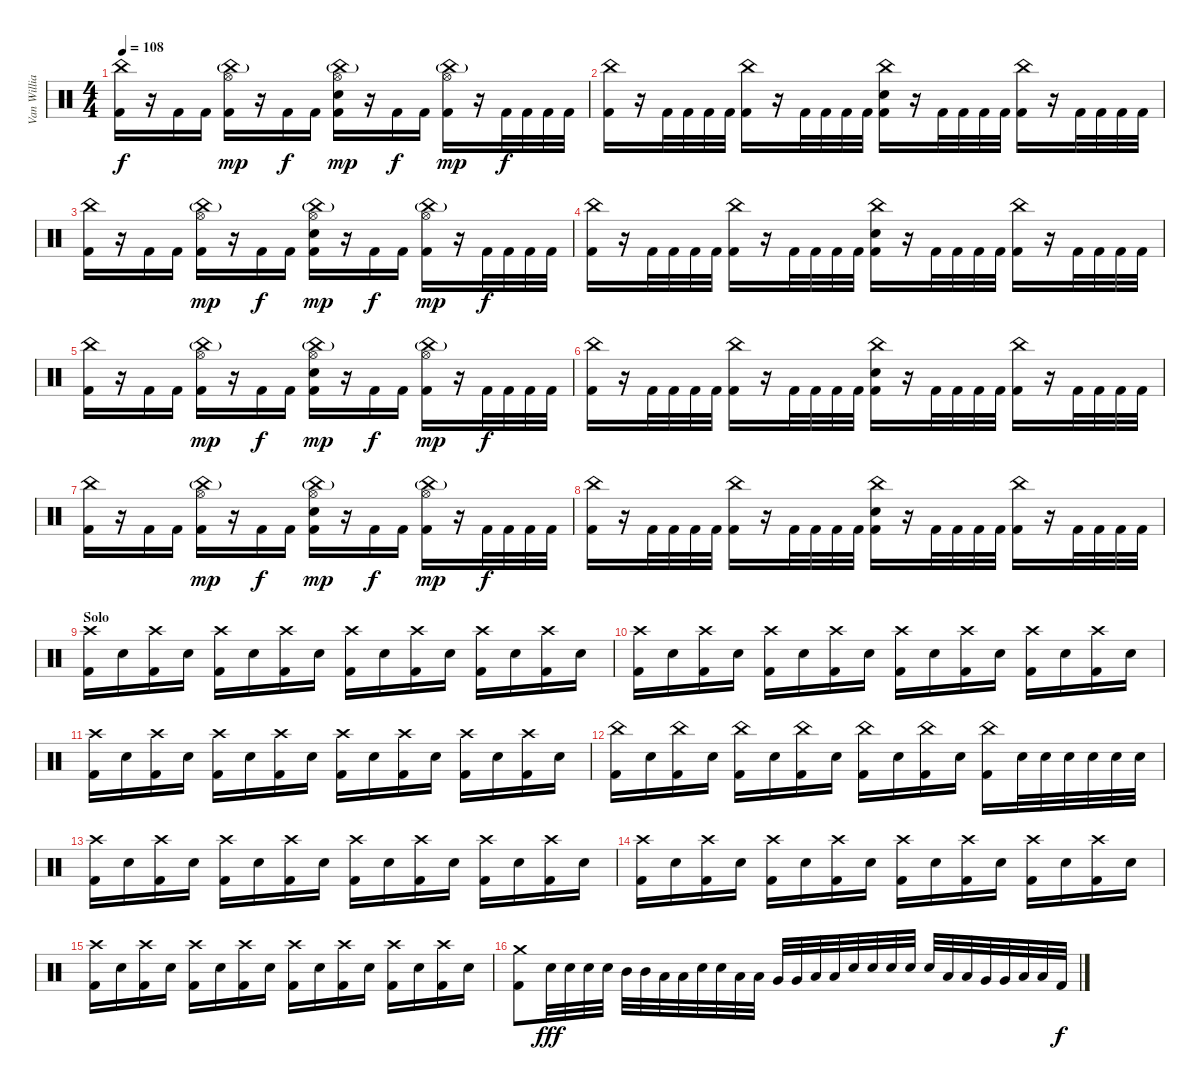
\track ("Van Williams" "Van Willia") {instrument percussion}
\staff {score}
\articulation defaults
\ts (4 4)
\tempo 108
\clef neutral
\ks c
("China (hit)" "Kick (hit) 2").16{dy f} r.16 "Kick (hit) 2".16 "Kick (hit) 2".16 ("China (hit)"{g} "Hi-Hat (open)" "Kick (hit) 2").16{dy mp} r.16 "Kick (hit) 2".16{dy f} "Kick (hit) 2".16 ("China (hit)"{g} "Hi-Hat (open)" "Electric Snare (hit)" "Kick (hit) 2").16{dy mp} r.16 "Kick (hit) 2".16{dy f} "Kick (hit) 2".16 ("China (hit)"{g} "Hi-Hat (open)" "Kick (hit) 2").16{dy mp} r.16 "Kick (hit) 2".32{dy f} "Kick (hit) 2".32 "Kick (hit) 2".32 "Kick (hit) 2".32 |
("China (hit)" "Kick (hit) 2").16 r.16 "Kick (hit) 2".32 "Kick (hit) 2".32 "Kick (hit) 2".32 "Kick (hit) 2".32 ("China (hit)" "Kick (hit) 2").16 r.16 "Kick (hit) 2".32 "Kick (hit) 2".32 "Kick (hit) 2".32 "Kick (hit) 2".32 ("China (hit)" "Electric Snare (hit)" "Kick (hit) 2").16 r.16 "Kick (hit) 2".32 "Kick (hit) 2".32 "Kick (hit) 2".32 "Kick (hit) 2".32 ("China (hit)" "Kick (hit) 2").16 r.16 "Kick (hit) 2".32 "Kick (hit) 2".32 "Kick (hit) 2".32 "Kick (hit) 2".32 |
("China (hit)" "Kick (hit) 2").16 r.16 "Kick (hit) 2".16 "Kick (hit) 2".16 ("China (hit)"{g} "Hi-Hat (open)" "Kick (hit) 2").16{dy mp} r.16 "Kick (hit) 2".16{dy f} "Kick (hit) 2".16 ("China (hit)"{g} "Hi-Hat (open)" "Electric Snare (hit)" "Kick (hit) 2").16{dy mp} r.16 "Kick (hit) 2".16{dy f} "Kick (hit) 2".16 ("China (hit)"{g} "Hi-Hat (open)" "Kick (hit) 2").16{dy mp} r.16 "Kick (hit) 2".32{dy f} "Kick (hit) 2".32 "Kick (hit) 2".32 "Kick (hit) 2".32 |
("China (hit)" "Kick (hit) 2").16 r.16 "Kick (hit) 2".32 "Kick (hit) 2".32 "Kick (hit) 2".32 "Kick (hit) 2".32 ("China (hit)" "Kick (hit) 2").16 r.16 "Kick (hit) 2".32 "Kick (hit) 2".32 "Kick (hit) 2".32 "Kick (hit) 2".32 ("China (hit)" "Electric Snare (hit)" "Kick (hit) 2").16 r.16 "Kick (hit) 2".32 "Kick (hit) 2".32 "Kick (hit) 2".32 "Kick (hit) 2".32 ("China (hit)" "Kick (hit) 2").16 r.16 "Kick (hit) 2".32 "Kick (hit) 2".32 "Kick (hit) 2".32 "Kick (hit) 2".32 |
("China (hit)" "Kick (hit) 2").16 r.16 "Kick (hit) 2".16 "Kick (hit) 2".16 ("China (hit)"{g} "Hi-Hat (open)" "Kick (hit) 2").16{dy mp} r.16 "Kick (hit) 2".16{dy f} "Kick (hit) 2".16 ("China (hit)"{g} "Hi-Hat (open)" "Electric Snare (hit)" "Kick (hit) 2").16{dy mp} r.16 "Kick (hit) 2".16{dy f} "Kick (hit) 2".16 ("China (hit)"{g} "Hi-Hat (open)" "Kick (hit) 2").16{dy mp} r.16 "Kick (hit) 2".32{dy f} "Kick (hit) 2".32 "Kick (hit) 2".32 "Kick (hit) 2".32 |
("China (hit)" "Kick (hit) 2").16 r.16 "Kick (hit) 2".32 "Kick (hit) 2".32 "Kick (hit) 2".32 "Kick (hit) 2".32 ("China (hit)" "Kick (hit) 2").16 r.16 "Kick (hit) 2".32 "Kick (hit) 2".32 "Kick (hit) 2".32 "Kick (hit) 2".32 ("China (hit)" "Electric Snare (hit)" "Kick (hit) 2").16 r.16 "Kick (hit) 2".32 "Kick (hit) 2".32 "Kick (hit) 2".32 "Kick (hit) 2".32 ("China (hit)" "Kick (hit) 2").16 r.16 "Kick (hit) 2".32 "Kick (hit) 2".32 "Kick (hit) 2".32 "Kick (hit) 2".32 |
("China (hit)" "Kick (hit) 2").16 r.16 "Kick (hit) 2".16 "Kick (hit) 2".16 ("China (hit)"{g} "Hi-Hat (open)" "Kick (hit) 2").16{dy mp} r.16 "Kick (hit) 2".16{dy f} "Kick (hit) 2".16 ("China (hit)"{g} "Hi-Hat (open)" "Electric Snare (hit)" "Kick (hit) 2").16{dy mp} r.16 "Kick (hit) 2".16{dy f} "Kick (hit) 2".16 ("China (hit)"{g} "Hi-Hat (open)" "Kick (hit) 2").16{dy mp} r.16 "Kick (hit) 2".32{dy f} "Kick (hit) 2".32 "Kick (hit) 2".32 "Kick (hit) 2".32 |
("China (hit)" "Kick (hit) 2").16 r.16 "Kick (hit) 2".32 "Kick (hit) 2".32 "Kick (hit) 2".32 "Kick (hit) 2".32 ("China (hit)" "Kick (hit) 2").16 r.16 "Kick (hit) 2".32 "Kick (hit) 2".32 "Kick (hit) 2".32 "Kick (hit) 2".32 ("China (hit)" "Electric Snare (hit)" "Kick (hit) 2").16 r.16 "Kick (hit) 2".32 "Kick (hit) 2".32 "Kick (hit) 2".32 "Kick (hit) 2".32 ("China (hit)" "Kick (hit) 2").16 r.16 "Kick (hit) 2".32 "Kick (hit) 2".32 "Kick (hit) 2".32 "Kick (hit) 2".32 |
\section ("" "Solo")
("Crash high (hit)" "Kick (hit) 2").16 "Snare (hit) 2".16 ("Crash high (hit)" "Kick (hit) 2").16 "Snare (hit) 2".16 ("Crash high (hit)" "Kick (hit) 2").16 "Snare (hit) 2".16 ("Crash high (hit)" "Kick (hit) 2").16 "Snare (hit) 2".16 ("Crash high (hit)" "Kick (hit) 2").16 "Snare (hit) 2".16 ("Crash high (hit)" "Kick (hit) 2").16 "Snare (hit) 2".16 ("Crash high (hit)" "Kick (hit) 2").16 "Snare (hit) 2".16 ("Crash high (hit)" "Kick (hit) 2").16 "Snare (hit) 2".16 |
("Crash high (hit)" "Kick (hit) 2").16 "Snare (hit) 2".16 ("Crash high (hit)" "Kick (hit) 2").16 "Snare (hit) 2".16 ("Crash high (hit)" "Kick (hit) 2").16 "Snare (hit) 2".16 ("Crash high (hit)" "Kick (hit) 2").16 "Snare (hit) 2".16 ("Crash high (hit)" "Kick (hit) 2").16 "Snare (hit) 2".16 ("Crash high (hit)" "Kick (hit) 2").16 "Snare (hit) 2".16 ("Crash high (hit)" "Kick (hit) 2").16 "Snare (hit) 2".16 ("Crash high (hit)" "Kick (hit) 2").16 "Snare (hit) 2".16 |
("Crash high (hit)" "Kick (hit) 2").16 "Snare (hit) 2".16 ("Crash high (hit)" "Kick (hit) 2").16 "Snare (hit) 2".16 ("Crash high (hit)" "Kick (hit) 2").16 "Snare (hit) 2".16 ("Crash high (hit)" "Kick (hit) 2").16 "Snare (hit) 2".16 ("Crash high (hit)" "Kick (hit) 2").16 "Snare (hit) 2".16 ("Crash high (hit)" "Kick (hit) 2").16 "Snare (hit) 2".16 ("Crash high (hit)" "Kick (hit) 2").16 "Snare (hit) 2".16 ("Crash high (hit)" "Kick (hit) 2").16 "Snare (hit) 2".16 |
("China (hit)" "Kick (hit) 2").16 "Snare (hit) 2".16 ("China (hit)" "Kick (hit) 2").16 "Snare (hit) 2".16 ("China (hit)" "Kick (hit) 2").16 "Snare (hit) 2".16 ("China (hit)" "Kick (hit) 2").16 "Snare (hit) 2".16 ("China (hit)" "Kick (hit) 2").16 "Snare (hit) 2".16 ("China (hit)" "Kick (hit) 2").16 "Snare (hit) 2".16 ("China (hit)" "Kick (hit) 2").16 "Snare (hit) 2".32 "Snare (hit) 2".32 "Snare (hit) 2".32 "Snare (hit) 2".32 "Snare (hit) 2".32 "Snare (hit) 2".32 |
("Crash high (hit)" "Kick (hit) 2").16 "Snare (hit) 2".16 ("Crash high (hit)" "Kick (hit) 2").16 "Snare (hit) 2".16 ("Crash high (hit)" "Kick (hit) 2").16 "Snare (hit) 2".16 ("Crash high (hit)" "Kick (hit) 2").16 "Snare (hit) 2".16 ("Crash high (hit)" "Kick (hit) 2").16 "Snare (hit) 2".16 ("Crash high (hit)" "Kick (hit) 2").16 "Snare (hit) 2".16 ("Crash high (hit)" "Kick (hit) 2").16 "Snare (hit) 2".16 ("Crash high (hit)" "Kick (hit) 2").16 "Snare (hit) 2".16 |
("Crash high (hit)" "Kick (hit) 2").16 "Snare (hit) 2".16 ("Crash high (hit)" "Kick (hit) 2").16 "Snare (hit) 2".16 ("Crash high (hit)" "Kick (hit) 2").16 "Snare (hit) 2".16 ("Crash high (hit)" "Kick (hit) 2").16 "Snare (hit) 2".16 ("Crash high (hit)" "Kick (hit) 2").16 "Snare (hit) 2".16 ("Crash high (hit)" "Kick (hit) 2").16 "Snare (hit) 2".16 ("Crash high (hit)" "Kick (hit) 2").16 "Snare (hit) 2".16 ("Crash high (hit)" "Kick (hit) 2").16 "Snare (hit) 2".16 |
("Crash high (hit)" "Kick (hit) 2").16 "Snare (hit) 2".16 ("Crash high (hit)" "Kick (hit) 2").16 "Snare (hit) 2".16 ("Crash high (hit)" "Kick (hit) 2").16 "Snare (hit) 2".16 ("Crash high (hit)" "Kick (hit) 2").16 "Snare (hit) 2".16 ("Crash high (hit)" "Kick (hit) 2").16 "Snare (hit) 2".16 ("Crash high (hit)" "Kick (hit) 2").16 "Snare (hit) 2".16 ("Crash high (hit)" "Kick (hit) 2").16 "Snare (hit) 2".16 ("Crash high (hit)" "Kick (hit) 2").16 "Snare (hit) 2".16 |
("Crash medium (hit)" "Kick (hit) 2").8 "Snare (hit) 2".32{dy fff} "Snare (hit) 2".32 "Snare (hit) 2".32 "Snare (hit) 2".32 "Mid Tom (hit)".32 "Mid Tom (hit)".32 "Low Tom (hit)".32 "Low Tom (hit)".32 "Snare (hit) 2".32 "Snare (hit) 2".32 "Low Tom (hit)".32 "Low Tom (hit)".32 "Very Low Tom (hit)".32 "Very Low Tom (hit)".32 "Low Floor Tom (hit)".32 "Low Floor Tom (hit)".32 "Snare (hit) 2".32 "Snare (hit) 2".32 "Snare (hit) 2".32 "Snare (hit) 2".32 "Snare (hit) 2".32 "Low Tom (hit)".32 "Low Tom (hit)".32 "Very Low Tom (hit)".32 "Very Low Tom (hit)".32 "Low Floor Tom (hit)".32 "Low Floor Tom (hit)".32 "Kick (hit) 2".32{dy f}
